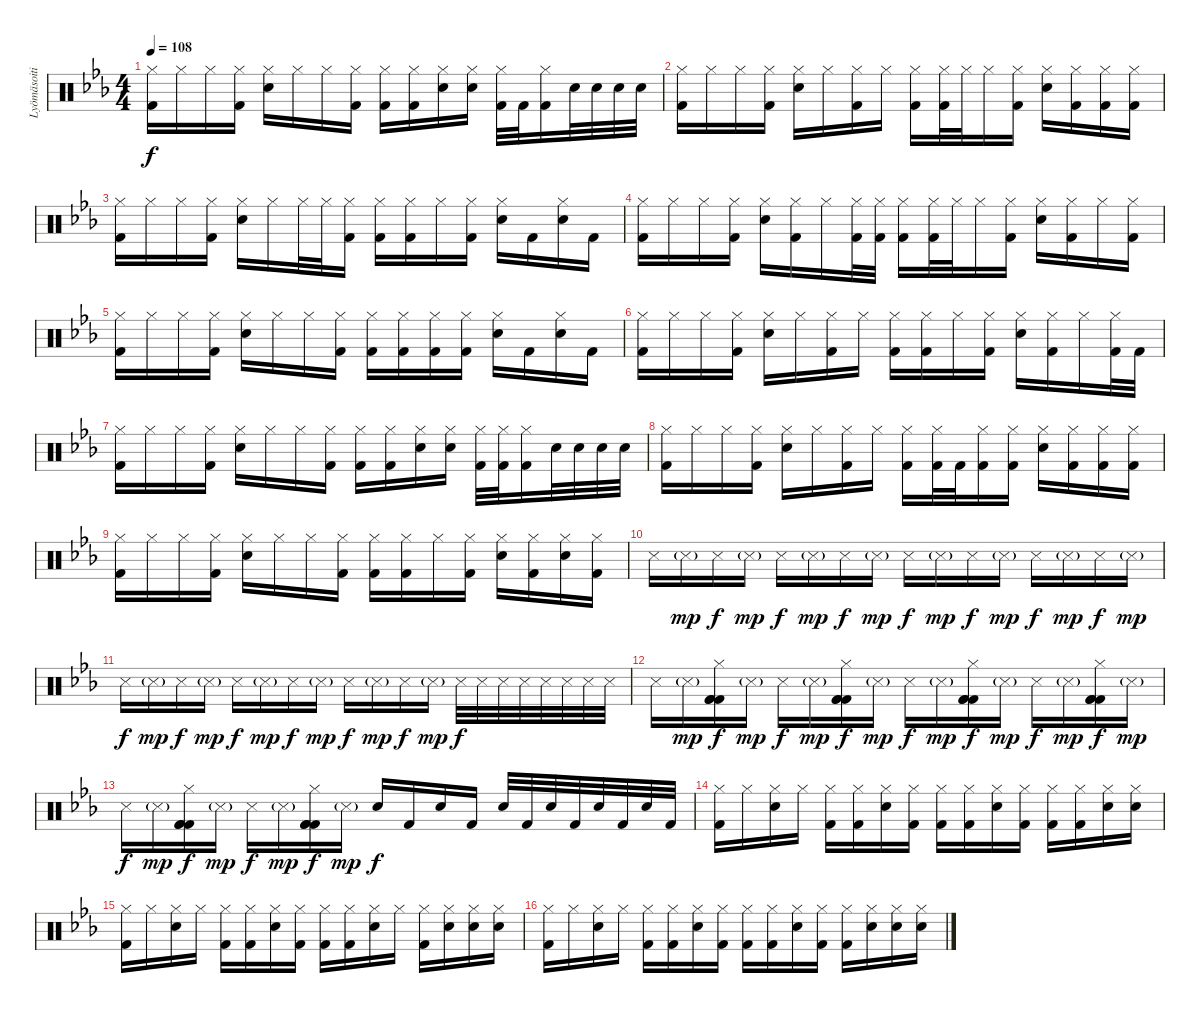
\track ("Lyömäsoitin" "Lyömäsoiti") {instrument percussion}
\staff {score}
\articulation defaults
\ts (4 4)
\tempo 108
\clef neutral
\ks cminor
("Hi-Hat (closed)" "Kick (hit) 2").16{dy f} "Hi-Hat (closed)".16 "Hi-Hat (closed)".16 ("Hi-Hat (closed)" "Kick (hit) 2").16 ("Hi-Hat (closed)" "Electric Snare (hit)").16 "Hi-Hat (closed)".16 "Hi-Hat (closed)".16 ("Hi-Hat (closed)" "Kick (hit) 2").16 ("Hi-Hat (closed)" "Kick (hit) 2").16 ("Hi-Hat (closed)" "Kick (hit) 2").16 ("Hi-Hat (closed)" "Electric Snare (hit)").16 ("Hi-Hat (closed)" "Electric Snare (hit)").16 ("Hi-Hat (closed)" "Kick (hit) 2").32 "Kick (hit) 2".32 ("Hi-Hat (closed)" "Kick (hit) 2").16 "Electric Snare (hit)".32 "Electric Snare (hit)".32 "Electric Snare (hit)".32 "Electric Snare (hit)".32 |
("Hi-Hat (closed)" "Kick (hit) 2").16 "Hi-Hat (closed)".16 "Hi-Hat (closed)".16 ("Hi-Hat (closed)" "Kick (hit) 2").16 ("Hi-Hat (closed)" "Electric Snare (hit)").16 "Hi-Hat (closed)".16 ("Hi-Hat (closed)" "Kick (hit) 2").16 "Hi-Hat (closed)".16 ("Hi-Hat (closed)" "Kick (hit) 2").16 ("Hi-Hat (closed)" "Kick (hit) 2").32 "Hi-Hat (closed)".32 "Hi-Hat (closed)".16 ("Hi-Hat (closed)" "Kick (hit) 2").16 ("Hi-Hat (closed)" "Electric Snare (hit)").16 ("Hi-Hat (closed)" "Kick (hit) 2").16 ("Hi-Hat (closed)" "Kick (hit) 2").16 ("Hi-Hat (closed)" "Kick (hit) 2").16 |
("Hi-Hat (closed)" "Kick (hit) 2").16 "Hi-Hat (closed)".16 "Hi-Hat (closed)".16 ("Hi-Hat (closed)" "Kick (hit) 2").16 ("Hi-Hat (closed)" "Electric Snare (hit)").16 "Hi-Hat (closed)".16 "Hi-Hat (closed)".32 "Hi-Hat (closed)".32 ("Hi-Hat (closed)" "Kick (hit) 2").16 ("Hi-Hat (closed)" "Kick (hit) 2").16 ("Hi-Hat (closed)" "Kick (hit) 2").16 "Hi-Hat (closed)".16 ("Hi-Hat (closed)" "Kick (hit) 2").16 ("Hi-Hat (closed)" "Electric Snare (hit)").16 "Kick (hit) 2".16 ("Hi-Hat (closed)" "Electric Snare (hit)").16 "Kick (hit) 2".16 |
("Hi-Hat (closed)" "Kick (hit) 2").16 "Hi-Hat (closed)".16 "Hi-Hat (closed)".16 ("Hi-Hat (closed)" "Kick (hit) 2").16 ("Hi-Hat (closed)" "Electric Snare (hit)").16 ("Hi-Hat (closed)" "Kick (hit) 2").16 "Hi-Hat (closed)".16 ("Hi-Hat (closed)" "Kick (hit) 2").32 ("Hi-Hat (closed)" "Kick (hit) 2").32 ("Hi-Hat (closed)" "Kick (hit) 2").16 ("Hi-Hat (closed)" "Kick (hit) 2").32 "Hi-Hat (closed)".32 "Hi-Hat (closed)".16 ("Hi-Hat (closed)" "Kick (hit) 2").16 ("Hi-Hat (closed)" "Electric Snare (hit)").16 ("Hi-Hat (closed)" "Kick (hit) 2").16 "Hi-Hat (closed)".16 ("Hi-Hat (closed)" "Kick (hit) 2").16 |
("Hi-Hat (closed)" "Kick (hit) 2").16 "Hi-Hat (closed)".16 "Hi-Hat (closed)".16 ("Hi-Hat (closed)" "Kick (hit) 2").16 ("Hi-Hat (closed)" "Electric Snare (hit)").16 "Hi-Hat (closed)".16 "Hi-Hat (closed)".16 ("Hi-Hat (closed)" "Kick (hit) 2").16 ("Hi-Hat (closed)" "Kick (hit) 2").16 ("Hi-Hat (closed)" "Kick (hit) 2").16 ("Hi-Hat (closed)" "Kick (hit) 2").16 ("Hi-Hat (closed)" "Kick (hit) 2").16 ("Hi-Hat (closed)" "Electric Snare (hit)").16 "Kick (hit) 2".16 ("Hi-Hat (closed)" "Electric Snare (hit)").16 "Kick (hit) 2".16 |
("Hi-Hat (closed)" "Kick (hit) 2").16 "Hi-Hat (closed)".16 "Hi-Hat (closed)".16 ("Hi-Hat (closed)" "Kick (hit) 2").16 ("Hi-Hat (closed)" "Electric Snare (hit)").16 "Hi-Hat (closed)".16 ("Hi-Hat (closed)" "Kick (hit) 2").16 "Hi-Hat (closed)".16 ("Hi-Hat (closed)" "Kick (hit) 2").16 ("Hi-Hat (closed)" "Kick (hit) 2").16 "Hi-Hat (closed)".16 ("Hi-Hat (closed)" "Kick (hit) 2").16 ("Hi-Hat (closed)" "Electric Snare (hit)").16 ("Hi-Hat (closed)" "Kick (hit) 2").16 "Hi-Hat (closed)".16 ("Hi-Hat (closed)" "Kick (hit) 2").32 "Kick (hit) 2".32 |
("Hi-Hat (closed)" "Kick (hit) 2").16 "Hi-Hat (closed)".16 "Hi-Hat (closed)".16 ("Hi-Hat (closed)" "Kick (hit) 2").16 ("Hi-Hat (closed)" "Electric Snare (hit)").16 "Hi-Hat (closed)".16 "Hi-Hat (closed)".16 ("Hi-Hat (closed)" "Kick (hit) 2").16 ("Hi-Hat (closed)" "Kick (hit) 2").16 ("Hi-Hat (closed)" "Kick (hit) 2").16 ("Hi-Hat (closed)" "Electric Snare (hit)").16 ("Hi-Hat (closed)" "Electric Snare (hit)").16 ("Hi-Hat (closed)" "Kick (hit) 2").32 ("Hi-Hat (closed)" "Kick (hit) 2").32 ("Hi-Hat (closed)" "Kick (hit) 2").16 "Electric Snare (hit)".32 "Electric Snare (hit)".32 "Electric Snare (hit)".32 "Electric Snare (hit)".32 |
("Hi-Hat (closed)" "Kick (hit) 2").16 "Hi-Hat (closed)".16 "Hi-Hat (closed)".16 ("Hi-Hat (closed)" "Kick (hit) 2").16 ("Hi-Hat (closed)" "Electric Snare (hit)").16 "Hi-Hat (closed)".16 ("Hi-Hat (closed)" "Kick (hit) 2").16 "Hi-Hat (closed)".16 ("Hi-Hat (closed)" "Kick (hit) 2").16 ("Hi-Hat (closed)" "Kick (hit) 2").32 "Kick (hit) 2".32 ("Hi-Hat (closed)" "Kick (hit) 2").16 ("Hi-Hat (closed)" "Kick (hit) 2").16 ("Hi-Hat (closed)" "Electric Snare (hit)").16 ("Hi-Hat (closed)" "Kick (hit) 2").16 ("Hi-Hat (closed)" "Kick (hit) 2").16 ("Hi-Hat (closed)" "Kick (hit) 2").16 |
("Hi-Hat (closed)" "Kick (hit) 2").16 "Hi-Hat (closed)".16 "Hi-Hat (closed)".16 ("Hi-Hat (closed)" "Kick (hit) 2").16 ("Hi-Hat (closed)" "Electric Snare (hit)").16 "Hi-Hat (closed)".16 "Hi-Hat (closed)".16 ("Hi-Hat (closed)" "Kick (hit) 2").16 ("Hi-Hat (closed)" "Kick (hit) 2").16 ("Hi-Hat (closed)" "Kick (hit) 2").16 "Hi-Hat (closed)".16 ("Hi-Hat (closed)" "Kick (hit) 2").16 ("Hi-Hat (closed)" "Electric Snare (hit)").16 ("Hi-Hat (closed)" "Kick (hit) 2").16 ("Hi-Hat (closed)" "Electric Snare (hit)").16 ("Hi-Hat (closed)" "Kick (hit) 2").16 |
"Snare (side stick) 3".16 "Snare (side stick) 3"{g}.16{dy mp} "Snare (side stick) 3".16{dy f} "Snare (side stick) 3"{g}.16{dy mp} "Snare (side stick) 3".16{dy f} "Snare (side stick) 3"{g}.16{dy mp} "Snare (side stick) 3".16{dy f} "Snare (side stick) 3"{g}.16{dy mp} "Snare (side stick) 3".16{dy f} "Snare (side stick) 3"{g}.16{dy mp} "Snare (side stick) 3".16{dy f} "Snare (side stick) 3"{g}.16{dy mp} "Snare (side stick) 3".16{dy f} "Snare (side stick) 3"{g}.16{dy mp} "Snare (side stick) 3".16{dy f} "Snare (side stick) 3"{g}.16{dy mp} |
"Snare (side stick) 3".16{dy f} "Snare (side stick) 3"{g}.16{dy mp} "Snare (side stick) 3".16{dy f} "Snare (side stick) 3"{g}.16{dy mp} "Snare (side stick) 3".16{dy f} "Snare (side stick) 3"{g}.16{dy mp} "Snare (side stick) 3".16{dy f} "Snare (side stick) 3"{g}.16{dy mp} "Snare (side stick) 3".16{dy f} "Snare (side stick) 3"{g}.16{dy mp} "Snare (side stick) 3".16{dy f} "Snare (side stick) 3"{g}.16{dy mp} "Snare (side stick) 3".32{dy f} "Snare (side stick) 3".32 "Snare (side stick) 3".32 "Snare (side stick) 3".32 "Snare (side stick) 3".32 "Snare (side stick) 3".32 "Snare (side stick) 3".32 "Snare (side stick) 3".32 |
"Snare (side stick) 3".16 "Snare (side stick) 3"{g}.16{dy mp} ("Hi-Hat (closed)" "Kick (hit) 2" "Kick (hit) 2" "Kick (hit) 2").16{dy f} "Snare (side stick) 3"{g}.16{dy mp} "Snare (side stick) 3".16{dy f} "Snare (side stick) 3"{g}.16{dy mp} ("Hi-Hat (closed)" "Kick (hit) 2" "Kick (hit) 2" "Kick (hit) 2").16{dy f} "Snare (side stick) 3"{g}.16{dy mp} "Snare (side stick) 3".16{dy f} "Snare (side stick) 3"{g}.16{dy mp} ("Hi-Hat (closed)" "Kick (hit) 2" "Kick (hit) 2" "Kick (hit) 2").16{dy f} "Snare (side stick) 3"{g}.16{dy mp} "Snare (side stick) 3".16{dy f} "Snare (side stick) 3"{g}.16{dy mp} ("Hi-Hat (closed)" "Kick (hit) 2" "Kick (hit) 2" "Kick (hit) 2").16{dy f} "Snare (side stick) 3"{g}.16{dy mp} |
"Snare (side stick) 3".16{dy f} "Snare (side stick) 3"{g}.16{dy mp} ("Hi-Hat (closed)" "Kick (hit) 2" "Kick (hit) 2" "Kick (hit) 2").16{dy f} "Snare (side stick) 3"{g}.16{dy mp} "Snare (side stick) 3".16{dy f} "Snare (side stick) 3"{g}.16{dy mp} ("Hi-Hat (closed)" "Kick (hit) 2" "Kick (hit) 2" "Kick (hit) 2").16{dy f} "Snare (side stick) 3"{g}.16{dy mp} "Electric Snare (hit)".16{dy f} "Kick (hit) 2".16 "Electric Snare (hit)".16 "Kick (hit) 2".16 "Electric Snare (hit)".32 "Kick (hit) 2".32 "Electric Snare (hit)".32 "Kick (hit) 2".32 "Electric Snare (hit)".32 "Kick (hit) 2".32 "Electric Snare (hit)".32 "Kick (hit) 2".32 |
("Hi-Hat (closed)" "Kick (hit) 2").16 "Hi-Hat (closed)".16 ("Hi-Hat (closed)" "Electric Snare (hit)").16 "Hi-Hat (closed)".16 ("Hi-Hat (closed)" "Kick (hit) 2").16 ("Hi-Hat (closed)" "Kick (hit) 2").16 ("Hi-Hat (closed)" "Electric Snare (hit)").16 ("Hi-Hat (closed)" "Kick (hit) 2").16 ("Hi-Hat (closed)" "Kick (hit) 2").16 ("Hi-Hat (closed)" "Kick (hit) 2").16 ("Hi-Hat (closed)" "Electric Snare (hit)").16 ("Hi-Hat (closed)" "Kick (hit) 2").16 ("Hi-Hat (closed)" "Kick (hit) 2").16 ("Hi-Hat (closed)" "Kick (hit) 2").16 ("Hi-Hat (closed)" "Electric Snare (hit)").16 ("Hi-Hat (closed)" "Electric Snare (hit)").16 |
("Hi-Hat (closed)" "Kick (hit) 2").16 "Hi-Hat (closed)".16 ("Hi-Hat (closed)" "Electric Snare (hit)").16 "Hi-Hat (closed)".16 ("Hi-Hat (closed)" "Kick (hit) 2").16 ("Hi-Hat (closed)" "Kick (hit) 2").16 ("Hi-Hat (closed)" "Electric Snare (hit)").16 ("Hi-Hat (closed)" "Kick (hit) 2").16 ("Hi-Hat (closed)" "Kick (hit) 2").16 ("Hi-Hat (closed)" "Kick (hit) 2").16 ("Hi-Hat (closed)" "Electric Snare (hit)").16 "Hi-Hat (closed)".16 ("Hi-Hat (closed)" "Kick (hit) 2").16 ("Hi-Hat (closed)" "Electric Snare (hit)").16 ("Hi-Hat (closed)" "Electric Snare (hit)").16 ("Hi-Hat (closed)" "Electric Snare (hit)").16 |
("Hi-Hat (closed)" "Kick (hit) 2").16 "Hi-Hat (closed)".16 ("Hi-Hat (closed)" "Electric Snare (hit)").16 "Hi-Hat (closed)".16 ("Hi-Hat (closed)" "Kick (hit) 2").16 ("Hi-Hat (closed)" "Kick (hit) 2").16 ("Hi-Hat (closed)" "Electric Snare (hit)").16 ("Hi-Hat (closed)" "Kick (hit) 2").16 ("Hi-Hat (closed)" "Kick (hit) 2").16 ("Hi-Hat (closed)" "Kick (hit) 2").16 ("Hi-Hat (closed)" "Electric Snare (hit)").16 ("Hi-Hat (closed)" "Kick (hit) 2").16 ("Hi-Hat (closed)" "Kick (hit) 2").16 ("Hi-Hat (closed)" "Electric Snare (hit)").16 ("Hi-Hat (closed)" "Electric Snare (hit)").16 ("Hi-Hat (closed)" "Electric Snare (hit)").16
